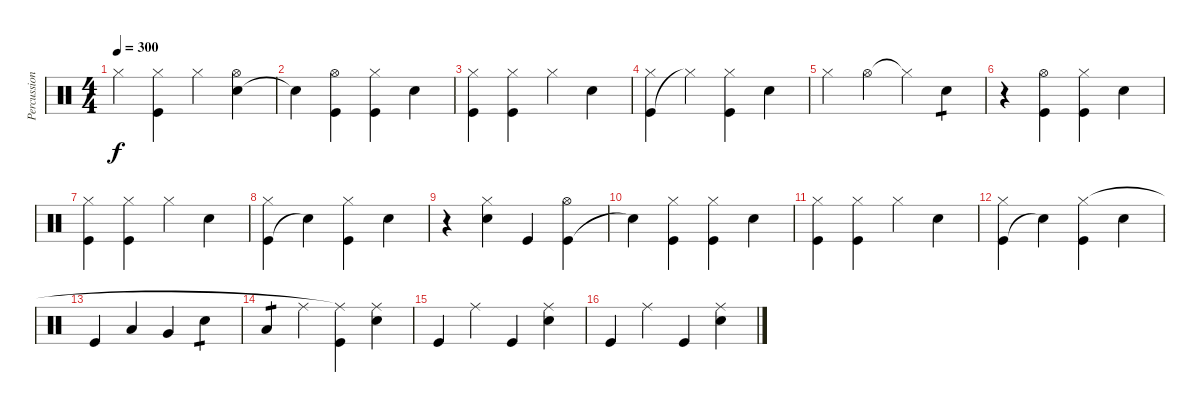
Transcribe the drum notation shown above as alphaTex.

\track ("Percussion" "Percussion") {instrument percussion}
\staff {score}
\articulation defaults
\ts (4 4)
\tempo 300
\clef neutral
\ks c "Hi-Hat (closed)".4{dy f}
("Kick (hit)" "Hi-Hat (closed)").4 "Hi-Hat (closed)".4 ("Electric Snare (hit)" "Hi-Hat (open)").4 |
"Snare (hit)"{t}.4 ("Kick (hit)" "Hi-Hat (open)").4 ("Kick (hit)" "Hi-Hat (closed)").4 "Electric Snare (hit)".4 |
("Kick (hit)" "Hi-Hat (closed)").4 ("Kick (hit)" "Hi-Hat (closed)").4 "Hi-Hat (closed)".4 "Electric Snare (hit)".4 |
("Kick (hit)" "Hi-Hat (closed)").4 "Hi-Hat (closed)"{t}.4 ("Kick (hit)" "Hi-Hat (closed)").4 "Electric Snare (hit)".4 |
"Hi-Hat (closed)".4 "Hi-Hat (open)".4 "Hi-Hat (closed)"{t}.4 "Electric Snare (hit)".4{tp 1} |
r.4 ("Kick (hit)" "Hi-Hat (open)").4 ("Kick (hit)" "Hi-Hat (closed)").4 "Electric Snare (hit)".4 |
("Kick (hit)" "Hi-Hat (closed)").4 ("Kick (hit)" "Hi-Hat (closed)").4 "Hi-Hat (closed)".4 "Electric Snare (hit)".4 |
("Kick (hit)" "Hi-Hat (closed)").4 "Snare (hit)"{t}.4 ("Kick (hit)" "Hi-Hat (closed)").4 "Electric Snare (hit)".4 |
r.4 ("Electric Snare (hit)" "Hi-Hat (closed)").4 "Kick (hit)".4 ("Kick (hit)" "Hi-Hat (open)").4 |
"Snare (hit)"{t}.4 ("Kick (hit)" "Hi-Hat (closed)").4 ("Kick (hit)" "Hi-Hat (closed)").4 "Electric Snare (hit)".4 |
("Kick (hit)" "Hi-Hat (closed)").4 ("Kick (hit)" "Hi-Hat (closed)").4 "Hi-Hat (closed)".4 "Electric Snare (hit)".4 |
("Kick (hit)" "Hi-Hat (closed)").4 "Snare (hit)"{t}.4 ("Kick (hit)" "Hi-Hat (closed)").4 "Electric Snare (hit)".4 |
"Kick (hit)".4 "Low Floor Tom (hit)".4 "Very Low Tom (hit)".4 "Electric Snare (hit)".4{tp 1} |
"Low Floor Tom (hit)".4{tp 1} "Ride (middle)".4 ("Kick (hit)" "Ride (middle)"{t}).4 ("Electric Snare (hit)" "Ride (middle)").4 |
"Kick (hit)".4 "Ride (middle)".4 "Kick (hit)".4 ("Electric Snare (hit)" "Ride (middle)").4 |
"Kick (hit)".4 "Ride (middle)".4 "Kick (hit)".4 ("Electric Snare (hit)" "Ride (middle)").4
